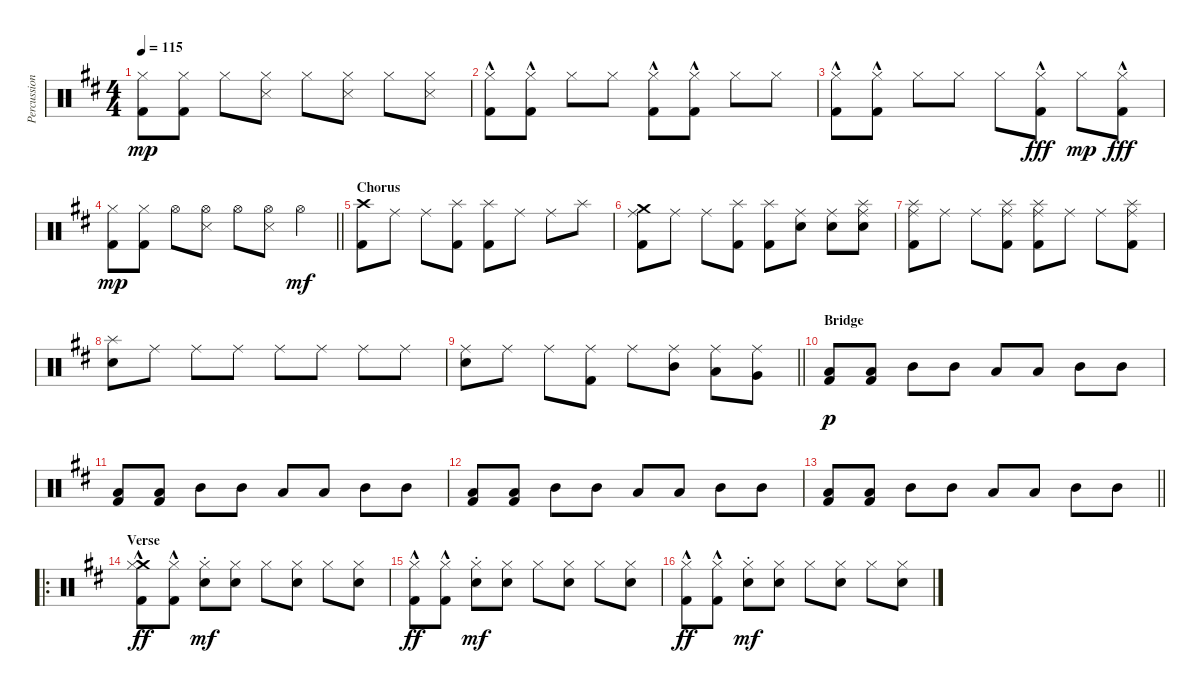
\track ("Percussion" "Percussion") {instrument percussion}
\staff {score}
\articulation defaults
\ts (4 4)
\section ("" "")
\tempo 115
\clef neutral
\ks bminor
("Hi-Hat (closed)" "Kick (hit) 2").8{dy mp} ("Hi-Hat (closed)" "Kick (hit) 2").8 "Hi-Hat (closed)".8 ("Hi-Hat (closed)" "Snare (side stick) 3").8 "Hi-Hat (closed)".8 ("Hi-Hat (closed)" "Snare (side stick) 3").8 "Hi-Hat (closed)".8 ("Hi-Hat (closed)" "Snare (side stick) 3").8 |
("Hi-Hat (closed)" "Kick (hit) 2"{hac}).8 ("Hi-Hat (closed)" "Kick (hit) 2"{hac}).8 "Hi-Hat (closed)".8 "Hi-Hat (closed)".8 ("Hi-Hat (closed)" "Kick (hit) 2"{hac}).8 ("Hi-Hat (closed)" "Kick (hit) 2"{hac}).8 "Hi-Hat (closed)".8 "Hi-Hat (closed)".8 |
("Hi-Hat (closed)" "Kick (hit) 2"{hac}).8 ("Hi-Hat (closed)" "Kick (hit) 2"{hac}).8 "Hi-Hat (closed)".8 "Hi-Hat (closed)".8 "Hi-Hat (closed)".8 ("Hi-Hat (closed)" "Kick (hit) 2"{hac}).8{dy fff} "Hi-Hat (closed)".8{dy mp} ("Hi-Hat (closed)" "Kick (hit) 2"{hac}).8{dy fff} |
\barLineRight lightlight
("Hi-Hat (closed)" "Kick (hit) 2").8{dy mp} ("Hi-Hat (closed)" "Kick (hit) 2").8 "Hi-Hat (open)".8 ("Hi-Hat (open)" "Snare (side stick) 3").8 "Hi-Hat (open)".8 ("Hi-Hat (open)" "Snare (side stick) 3").8 "Hi-Hat (open)".4{dy mf} |
\section ("" "Chorus")
("Crash high (hit)" "Kick (hit) 2").8 "Ride (middle)".8 "Ride (middle)".8 ("Splash (hit)" "Kick (hit) 2").8 ("Splash (hit)" "Kick (hit) 2").8 "Ride (middle)".8 "Ride (middle)".8 "Splash (hit)".8 |
("Crash medium (hit)" "Ride (middle)" "Kick (hit) 2").8 "Ride (middle)".8 "Ride (middle)".8 ("Splash (hit)" "Kick (hit) 2").8 ("Splash (hit)" "Kick (hit) 2").8 ("Ride (middle)" "Snare (hit) 2").8 ("Ride (middle)" "Snare (hit) 2").8 ("Splash (hit)" "Ride (middle)" "Snare (hit) 2").8 |
("Splash (hit)" "Ride (middle)" "Kick (hit) 2").8 "Ride (middle)".8 "Ride (middle)".8 ("Splash (hit)" "Ride (middle)" "Kick (hit) 2").8 ("Splash (hit)" "Ride (middle)" "Kick (hit) 2").8 "Ride (middle)".8 "Ride (middle)".8 ("Splash (hit)" "Ride (middle)" "Kick (hit) 2").8 |
("Splash (hit)" "Snare (hit) 2").8 "Ride (middle)".8 "Ride (middle)".8 "Ride (middle)".8 "Ride (middle)".8 "Ride (middle)".8 "Ride (middle)".8 "Ride (middle)".8 |
\barLineRight lightlight
("Ride (middle)" "Snare (hit) 2").8 "Ride (middle)".8 "Ride (middle)".8 ("Ride (middle)" "Kick (hit) 2").8 "Ride (middle)".8 ("Ride (middle)" "Mid Tom (hit)").8 ("Ride (middle)" "Low Tom (hit)").8 ("Ride (middle)" "Very Low Tom (hit)").8 |
\section ("" "Bridge")
("Low Tom (hit)" "Kick (hit) 2").8{dy p} ("Low Tom (hit)" "Kick (hit) 2").8 "Mid Tom (hit)".8 "Mid Tom (hit)".8 "Low Tom (hit)".8 "Low Tom (hit)".8 "Mid Tom (hit)".8 "Mid Tom (hit)".8 |
("Low Tom (hit)" "Kick (hit) 2").8 ("Low Tom (hit)" "Kick (hit) 2").8 "Mid Tom (hit)".8 "Mid Tom (hit)".8 "Low Tom (hit)".8 "Low Tom (hit)".8 "Mid Tom (hit)".8 "Mid Tom (hit)".8 |
("Low Tom (hit)" "Kick (hit) 2").8 ("Low Tom (hit)" "Kick (hit) 2").8 "Mid Tom (hit)".8 "Mid Tom (hit)".8 "Low Tom (hit)".8 "Low Tom (hit)".8 "Mid Tom (hit)".8 "Mid Tom (hit)".8 |
\barLineRight lightlight
("Low Tom (hit)" "Kick (hit) 2").8 ("Low Tom (hit)" "Kick (hit) 2").8 "Mid Tom (hit)".8 "Mid Tom (hit)".8 "Low Tom (hit)".8 "Low Tom (hit)".8 "Mid Tom (hit)".8 "Mid Tom (hit)".8 |
\ro
\section ("" "Verse")
("Crash medium (hit)" "Hi-Hat (closed)" "Kick (hit) 2"{hac}).8{dy ff} ("Hi-Hat (closed)" "Kick (hit) 2"{hac}).8 ("Hi-Hat (closed)"{st} "Snare (hit) 2"{st}).8{dy mf} ("Hi-Hat (closed)" "Snare (hit) 2").8 "Hi-Hat (closed)".8 ("Hi-Hat (closed)" "Snare (hit) 2").8 "Hi-Hat (closed)".8 ("Hi-Hat (closed)" "Snare (hit) 2").8 |
("Hi-Hat (closed)" "Kick (hit) 2"{hac}).8{dy ff} ("Hi-Hat (closed)" "Kick (hit) 2"{hac}).8 ("Hi-Hat (closed)"{st} "Snare (hit) 2"{st}).8{dy mf} ("Hi-Hat (closed)" "Snare (hit) 2").8 "Hi-Hat (closed)".8 ("Hi-Hat (closed)" "Snare (hit) 2").8 "Hi-Hat (closed)".8 ("Hi-Hat (closed)" "Snare (hit) 2").8 |
("Hi-Hat (closed)" "Kick (hit) 2"{hac}).8{dy ff} ("Hi-Hat (closed)" "Kick (hit) 2"{hac}).8 ("Hi-Hat (closed)"{st} "Snare (hit) 2"{st}).8{dy mf} ("Hi-Hat (closed)" "Snare (hit) 2").8 "Hi-Hat (closed)".8 ("Hi-Hat (closed)" "Snare (hit) 2").8 "Hi-Hat (closed)".8 ("Hi-Hat (closed)" "Snare (hit) 2").8
